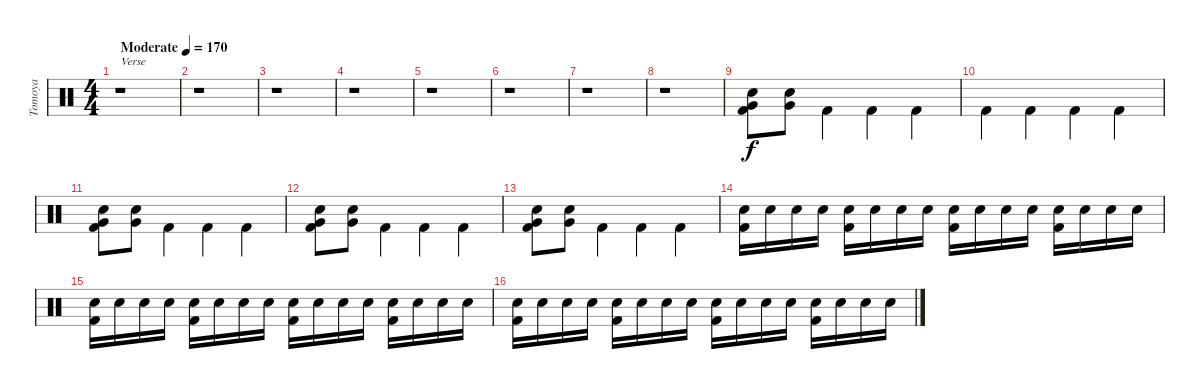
\track ("Tomoya" "Tomoya") {instrument percussion}
\staff {score}
\articulation defaults
\ts (4 4)
\tempo (170 "Moderate")
\clef neutral
\ks c
r.1{txt "Verse" dy f} |
r.1 |
r.1 |
r.1 |
r.1 |
r.1 |
r.1 |
r.1 |
("Snare (hit) 2" "Very Low Tom (hit)" "Kick (hit) 2").8{beam Down} ("Snare (hit) 2" "Very Low Tom (hit)").8{beam Down} "Kick (hit) 2".4{beam Down} "Kick (hit) 2".4{beam Down} "Kick (hit) 2".4{beam Down} |
"Kick (hit) 2".4{beam Down} "Kick (hit) 2".4{beam Down} "Kick (hit) 2".4{beam Down} "Kick (hit) 2".4{beam Down} |
("Snare (hit) 2" "Very Low Tom (hit)" "Kick (hit) 2").8{beam Down} ("Snare (hit) 2" "Very Low Tom (hit)").8{beam Down} "Kick (hit) 2".4{beam Down} "Kick (hit) 2".4{beam Down} "Kick (hit) 2".4{beam Down} |
("Snare (hit) 2" "Very Low Tom (hit)" "Kick (hit) 2").8{beam Down} ("Snare (hit) 2" "Very Low Tom (hit)").8{beam Down} "Kick (hit) 2".4{beam Down} "Kick (hit) 2".4{beam Down} "Kick (hit) 2".4{beam Down} |
("Snare (hit) 2" "Very Low Tom (hit)" "Kick (hit) 2").8{beam Down} ("Snare (hit) 2" "Very Low Tom (hit)").8{beam Down} "Kick (hit) 2".4{beam Down} "Kick (hit) 2".4{beam Down} "Kick (hit) 2".4{beam Down} |
("Snare (hit) 2" "Kick (hit) 2").16{volume 14 beam Down} "Snare (hit) 2".16{beam Down} "Snare (hit) 2".16{beam Down} "Snare (hit) 2".16{beam Down} ("Snare (hit) 2" "Kick (hit) 2").16{beam Down} "Snare (hit) 2".16{beam Down} "Snare (hit) 2".16{beam Down} "Snare (hit) 2".16{beam Down} ("Snare (hit) 2" "Kick (hit) 2").16{beam Down} "Snare (hit) 2".16{beam Down} "Snare (hit) 2".16{beam Down} "Snare (hit) 2".16{beam Down} ("Snare (hit) 2" "Kick (hit) 2").16{beam Down} "Snare (hit) 2".16{beam Down} "Snare (hit) 2".16{beam Down} "Snare (hit) 2".16{beam Down} |
("Snare (hit) 2" "Kick (hit) 2").16{beam Down} "Snare (hit) 2".16{beam Down} "Snare (hit) 2".16{beam Down} "Snare (hit) 2".16{beam Down} ("Snare (hit) 2" "Kick (hit) 2").16{beam Down} "Snare (hit) 2".16{beam Down} "Snare (hit) 2".16{beam Down} "Snare (hit) 2".16{beam Down} ("Snare (hit) 2" "Kick (hit) 2").16{beam Down} "Snare (hit) 2".16{beam Down} "Snare (hit) 2".16{beam Down} "Snare (hit) 2".16{beam Down} ("Snare (hit) 2" "Kick (hit) 2").16{beam Down} "Snare (hit) 2".16{beam Down} "Snare (hit) 2".16{beam Down} "Snare (hit) 2".16{beam Down} |
("Snare (hit) 2" "Kick (hit) 2").16{beam Down} "Snare (hit) 2".16{beam Down} "Snare (hit) 2".16{beam Down} "Snare (hit) 2".16{beam Down} ("Snare (hit) 2" "Kick (hit) 2").16{beam Down} "Snare (hit) 2".16{beam Down} "Snare (hit) 2".16{beam Down} "Snare (hit) 2".16{beam Down} ("Snare (hit) 2" "Kick (hit) 2").16{beam Down} "Snare (hit) 2".16{beam Down} "Snare (hit) 2".16{beam Down} "Snare (hit) 2".16{beam Down} ("Snare (hit) 2" "Kick (hit) 2").16{beam Down} "Snare (hit) 2".16{beam Down} "Snare (hit) 2".16{beam Down} "Snare (hit) 2".16{beam Down}
